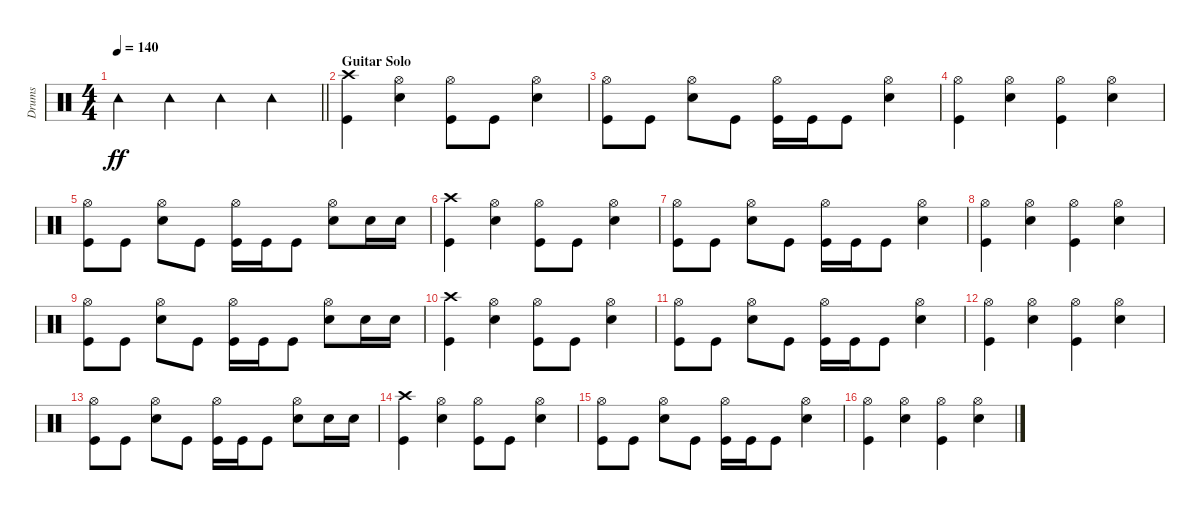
\track ("Drums" "Drums") {instrument percussion}
\staff {score}
\articulation defaults
\ts (4 4)
\tempo 140
\clef neutral
\barLineRight lightlight
\ks c "Tambourine (hit)".4{dy ff} "Tambourine (hit)".4 "Tambourine (hit)".4 "Tambourine (hit)".4
|
\section ("" "Guitar Solo")
("Crash high (hit)" "Kick (hit)").4 ("Hi-Hat (open)" "Snare (hit) 2").4 ("Hi-Hat (open)" "Kick (hit)").8 "Kick (hit)".8 ("Hi-Hat (open)" "Snare (hit) 2").4 |
("Hi-Hat (open)" "Kick (hit)").8 "Kick (hit)".8 ("Hi-Hat (open)" "Snare (hit) 2").8 "Kick (hit)".8 ("Hi-Hat (open)" "Kick (hit)").16 "Kick (hit)".16 "Kick (hit)".8 ("Hi-Hat (open)" "Snare (hit) 2").4 |
("Hi-Hat (open)" "Kick (hit)").4 ("Hi-Hat (open)" "Snare (hit) 2").4 ("Hi-Hat (open)" "Kick (hit)").4 ("Hi-Hat (open)" "Snare (hit) 2").4 |
("Hi-Hat (open)" "Kick (hit)").8 "Kick (hit)".8 ("Hi-Hat (open)" "Snare (hit) 2").8 "Kick (hit)".8 ("Hi-Hat (open)" "Kick (hit)").16 "Kick (hit)".16 "Kick (hit)".8 ("Hi-Hat (open)" "Snare (hit) 2").8 "Snare (hit) 2".16 "Snare (hit) 2".16 |
("Crash high (hit)" "Kick (hit)").4 ("Hi-Hat (open)" "Snare (hit) 2").4 ("Hi-Hat (open)" "Kick (hit)").8 "Kick (hit)".8 ("Hi-Hat (open)" "Snare (hit) 2").4 |
("Hi-Hat (open)" "Kick (hit)").8 "Kick (hit)".8 ("Hi-Hat (open)" "Snare (hit) 2").8 "Kick (hit)".8 ("Hi-Hat (open)" "Kick (hit)").16 "Kick (hit)".16 "Kick (hit)".8 ("Hi-Hat (open)" "Snare (hit) 2").4 |
("Hi-Hat (open)" "Kick (hit)").4 ("Hi-Hat (open)" "Snare (hit) 2").4 ("Hi-Hat (open)" "Kick (hit)").4 ("Hi-Hat (open)" "Snare (hit) 2").4 |
("Hi-Hat (open)" "Kick (hit)").8 "Kick (hit)".8 ("Hi-Hat (open)" "Snare (hit) 2").8 "Kick (hit)".8 ("Hi-Hat (open)" "Kick (hit)").16 "Kick (hit)".16 "Kick (hit)".8 ("Hi-Hat (open)" "Snare (hit) 2").8 "Snare (hit) 2".16 "Snare (hit) 2".16 |
("Crash high (hit)" "Kick (hit)").4 ("Hi-Hat (open)" "Snare (hit) 2").4 ("Hi-Hat (open)" "Kick (hit)").8 "Kick (hit)".8 ("Hi-Hat (open)" "Snare (hit) 2").4 |
("Hi-Hat (open)" "Kick (hit)").8 "Kick (hit)".8 ("Hi-Hat (open)" "Snare (hit) 2").8 "Kick (hit)".8 ("Hi-Hat (open)" "Kick (hit)").16 "Kick (hit)".16 "Kick (hit)".8 ("Hi-Hat (open)" "Snare (hit) 2").4 |
("Hi-Hat (open)" "Kick (hit)").4 ("Hi-Hat (open)" "Snare (hit) 2").4 ("Hi-Hat (open)" "Kick (hit)").4 ("Hi-Hat (open)" "Snare (hit) 2").4 |
("Hi-Hat (open)" "Kick (hit)").8 "Kick (hit)".8 ("Hi-Hat (open)" "Snare (hit) 2").8 "Kick (hit)".8 ("Hi-Hat (open)" "Kick (hit)").16 "Kick (hit)".16 "Kick (hit)".8 ("Hi-Hat (open)" "Snare (hit) 2").8 "Snare (hit) 2".16 "Snare (hit) 2".16 |
("Crash high (hit)" "Kick (hit)").4 ("Hi-Hat (open)" "Snare (hit) 2").4 ("Hi-Hat (open)" "Kick (hit)").8 "Kick (hit)".8 ("Hi-Hat (open)" "Snare (hit) 2").4 |
("Hi-Hat (open)" "Kick (hit)").8 "Kick (hit)".8 ("Hi-Hat (open)" "Snare (hit) 2").8 "Kick (hit)".8 ("Hi-Hat (open)" "Kick (hit)").16 "Kick (hit)".16 "Kick (hit)".8 ("Hi-Hat (open)" "Snare (hit) 2").4 |
("Hi-Hat (open)" "Kick (hit)").4 ("Hi-Hat (open)" "Snare (hit) 2").4 ("Hi-Hat (open)" "Kick (hit)").4 ("Hi-Hat (open)" "Snare (hit) 2").4
